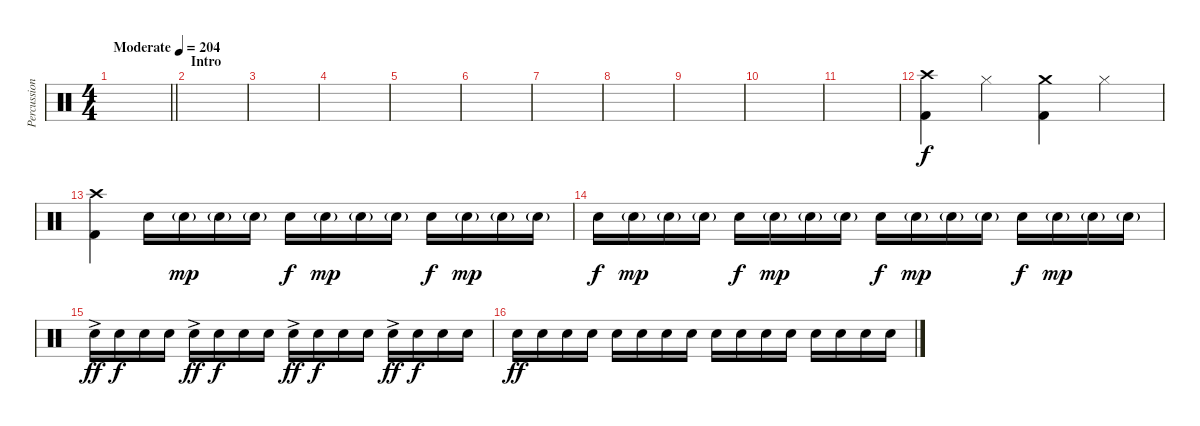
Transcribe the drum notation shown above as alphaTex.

\track ("Percussion" "Percussion") {instrument percussion}
\staff {score}
\articulation defaults
\ts (4 4)
\tempo (204 "Moderate")
\clef neutral
\barLineRight lightlight
\ks c
|
\section ("" "Intro")
|
|
|
|
|
|
|
|
|
|
("Crash high (hit)" "Kick (hit) 2").4 "Hi-Hat (closed)".4 ("Crash medium (hit)" "Kick (hit) 2").4 "Hi-Hat (closed)".4 |
("Crash high (hit)" "Kick (hit) 2").4 "Electric Snare (hit)".16 "Electric Snare (hit)"{g}.16{dy mp} "Electric Snare (hit)"{g}.16 "Electric Snare (hit)"{g}.16 "Electric Snare (hit)".16{dy f} "Electric Snare (hit)"{g}.16{dy mp} "Electric Snare (hit)"{g}.16 "Electric Snare (hit)"{g}.16 "Electric Snare (hit)".16{dy f} "Electric Snare (hit)"{g}.16{dy mp} "Electric Snare (hit)"{g}.16 "Electric Snare (hit)"{g}.16 |
"Electric Snare (hit)".16{dy f} "Electric Snare (hit)"{g}.16{dy mp} "Electric Snare (hit)"{g}.16 "Electric Snare (hit)"{g}.16 "Electric Snare (hit)".16{dy f} "Electric Snare (hit)"{g}.16{dy mp} "Electric Snare (hit)"{g}.16 "Electric Snare (hit)"{g}.16 "Electric Snare (hit)".16{dy f} "Electric Snare (hit)"{g}.16{dy mp} "Electric Snare (hit)"{g}.16 "Electric Snare (hit)"{g}.16 "Electric Snare (hit)".16{dy f} "Electric Snare (hit)"{g}.16{dy mp} "Electric Snare (hit)"{g}.16 "Electric Snare (hit)"{g}.16 |
"Electric Snare (hit)"{ac}.16{dy ff} "Electric Snare (hit)".16{dy f} "Electric Snare (hit)".16 "Electric Snare (hit)".16 "Electric Snare (hit)"{ac}.16{dy ff} "Electric Snare (hit)".16{dy f} "Electric Snare (hit)".16 "Electric Snare (hit)".16 "Electric Snare (hit)"{ac}.16{dy ff} "Electric Snare (hit)".16{dy f} "Electric Snare (hit)".16 "Electric Snare (hit)".16 "Electric Snare (hit)"{ac}.16{dy ff} "Electric Snare (hit)".16{dy f} "Electric Snare (hit)".16 "Electric Snare (hit)".16 |
"Electric Snare (hit)".16{dy ff} "Electric Snare (hit)".16 "Electric Snare (hit)".16 "Electric Snare (hit)".16 "Electric Snare (hit)".16 "Electric Snare (hit)".16 "Electric Snare (hit)".16 "Electric Snare (hit)".16 "Electric Snare (hit)".16 "Electric Snare (hit)".16 "Electric Snare (hit)".16 "Electric Snare (hit)".16 "Electric Snare (hit)".16 "Electric Snare (hit)".16 "Electric Snare (hit)".16 "Electric Snare (hit)".16
